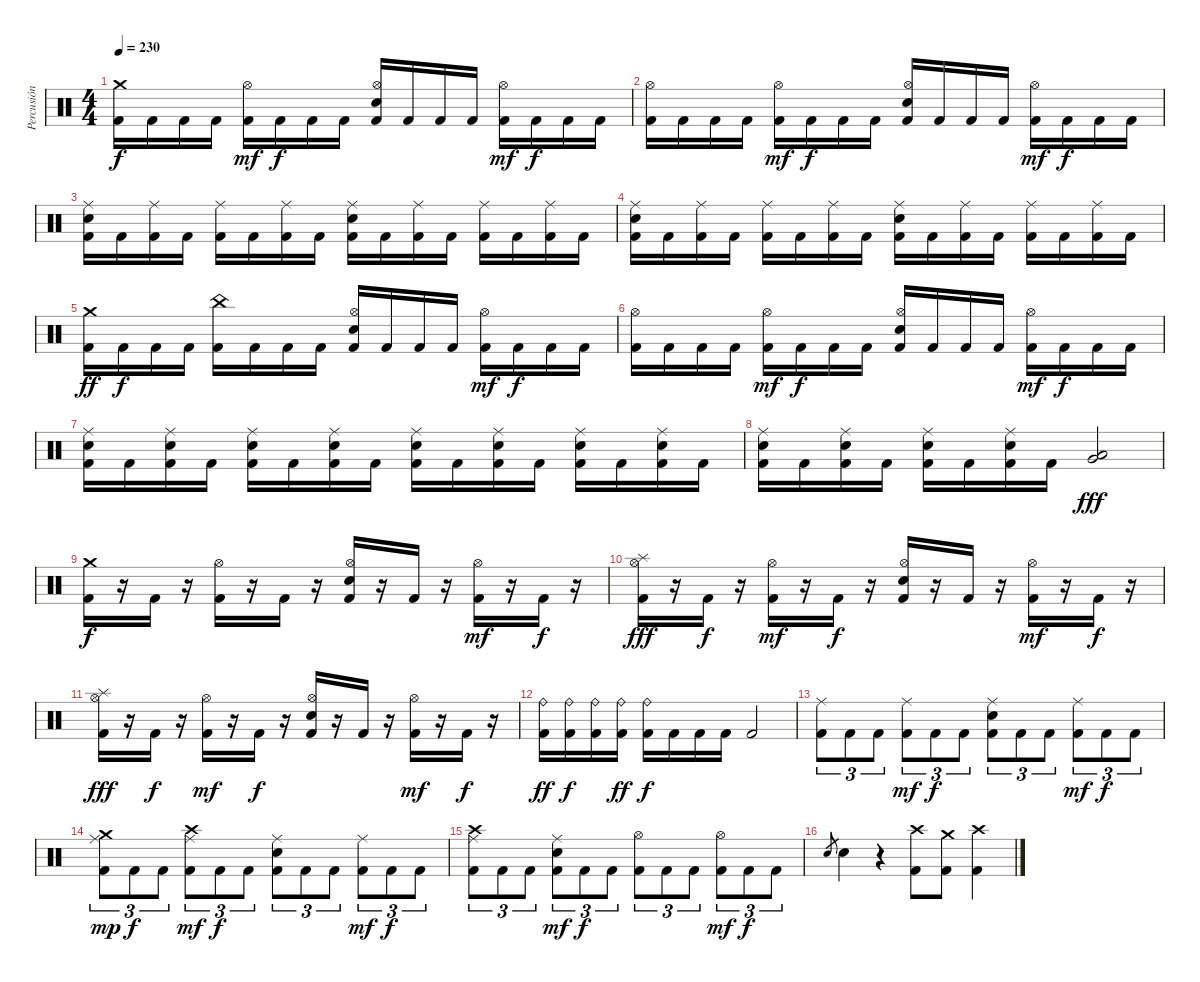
\track ("Percusión" "Percusión") {instrument percussion}
\staff {score}
\articulation defaults
\ts (4 4)
\tempo 230
\clef neutral
\ks c
("Crash medium (hit)" "Kick (hit) 2").16{dy f} "Kick (hit) 2".16 "Kick (hit) 2".16 "Kick (hit) 2".16 ("Hi-Hat (open)" "Kick (hit) 2").16{dy mf} "Kick (hit) 2".16{dy f} "Kick (hit) 2".16 "Kick (hit) 2".16 ("Hi-Hat (open)" "Kick (hit) 2" "Snare (hit) 2").16 "Kick (hit) 2".16 "Kick (hit) 2".16 "Kick (hit) 2".16 ("Hi-Hat (open)" "Kick (hit) 2").16{dy mf} "Kick (hit) 2".16{dy f} "Kick (hit) 2".16 "Kick (hit) 2".16 |
("Hi-Hat (open)" "Kick (hit) 2").16 "Kick (hit) 2".16 "Kick (hit) 2".16 "Kick (hit) 2".16 ("Hi-Hat (open)" "Kick (hit) 2").16{dy mf} "Kick (hit) 2".16{dy f} "Kick (hit) 2".16 "Kick (hit) 2".16 ("Hi-Hat (open)" "Kick (hit) 2" "Snare (hit) 2").16 "Kick (hit) 2".16 "Kick (hit) 2".16 "Kick (hit) 2".16 ("Hi-Hat (open)" "Kick (hit) 2").16{dy mf} "Kick (hit) 2".16{dy f} "Kick (hit) 2".16 "Kick (hit) 2".16 |
("Ride (middle)" "Kick (hit) 2" "Snare (hit) 2").16 "Kick (hit) 2".16 ("Ride (middle)" "Kick (hit) 2").16 "Kick (hit) 2".16 ("Ride (middle)" "Kick (hit) 2").16 "Kick (hit) 2".16 ("Ride (middle)" "Kick (hit) 2").16 "Kick (hit) 2".16 ("Ride (middle)" "Kick (hit) 2" "Snare (hit) 2").16 "Kick (hit) 2".16 ("Ride (middle)" "Kick (hit) 2").16 "Kick (hit) 2".16 ("Ride (middle)" "Kick (hit) 2").16 "Kick (hit) 2".16 ("Ride (middle)" "Kick (hit) 2").16 "Kick (hit) 2".16 |
("Ride (middle)" "Kick (hit) 2" "Snare (hit) 2").16 "Kick (hit) 2".16 ("Ride (middle)" "Kick (hit) 2").16 "Kick (hit) 2".16 ("Ride (middle)" "Kick (hit) 2").16 "Kick (hit) 2".16 ("Ride (middle)" "Kick (hit) 2").16 "Kick (hit) 2".16 ("Ride (middle)" "Kick (hit) 2" "Snare (hit) 2").16 "Kick (hit) 2".16 ("Ride (middle)" "Kick (hit) 2").16 "Kick (hit) 2".16 ("Ride (middle)" "Kick (hit) 2").16 "Kick (hit) 2".16 ("Ride (middle)" "Kick (hit) 2").16 "Kick (hit) 2".16 |
("Crash medium (hit)" "Kick (hit) 2").16{dy ff} "Kick (hit) 2".16{dy f} "Kick (hit) 2".16 "Kick (hit) 2".16 ("China (hit)" "Kick (hit) 2").16 "Kick (hit) 2".16 "Kick (hit) 2".16 "Kick (hit) 2".16 ("Hi-Hat (open)" "Kick (hit) 2" "Snare (hit) 2").16 "Kick (hit) 2".16 "Kick (hit) 2".16 "Kick (hit) 2".16 ("Hi-Hat (open)" "Kick (hit) 2").16{dy mf} "Kick (hit) 2".16{dy f} "Kick (hit) 2".16 "Kick (hit) 2".16 |
("Hi-Hat (open)" "Kick (hit) 2").16 "Kick (hit) 2".16 "Kick (hit) 2".16 "Kick (hit) 2".16 ("Hi-Hat (open)" "Kick (hit) 2").16{dy mf} "Kick (hit) 2".16{dy f} "Kick (hit) 2".16 "Kick (hit) 2".16 ("Hi-Hat (open)" "Kick (hit) 2" "Snare (hit) 2").16 "Kick (hit) 2".16 "Kick (hit) 2".16 "Kick (hit) 2".16 ("Hi-Hat (open)" "Kick (hit) 2").16{dy mf} "Kick (hit) 2".16{dy f} "Kick (hit) 2".16 "Kick (hit) 2".16 |
("Ride (middle)" "Kick (hit) 2" "Snare (hit) 2").16 "Kick (hit) 2".16 ("Ride (middle)" "Kick (hit) 2" "Snare (hit) 2").16 "Kick (hit) 2".16 ("Ride (middle)" "Kick (hit) 2" "Snare (hit) 2").16 "Kick (hit) 2".16 ("Ride (middle)" "Kick (hit) 2" "Snare (hit) 2").16 "Kick (hit) 2".16 ("Ride (middle)" "Kick (hit) 2" "Snare (hit) 2").16 "Kick (hit) 2".16 ("Ride (middle)" "Kick (hit) 2" "Snare (hit) 2").16 "Kick (hit) 2".16 ("Ride (middle)" "Kick (hit) 2" "Snare (hit) 2").16 "Kick (hit) 2".16 ("Ride (middle)" "Kick (hit) 2" "Snare (hit) 2").16 "Kick (hit) 2".16 |
("Ride (middle)" "Kick (hit) 2" "Snare (hit) 2").16 "Kick (hit) 2".16 ("Ride (middle)" "Kick (hit) 2" "Snare (hit) 2").16 "Kick (hit) 2".16 ("Ride (middle)" "Kick (hit) 2" "Snare (hit) 2").16 "Kick (hit) 2".16 ("Ride (middle)" "Kick (hit) 2" "Snare (hit) 2").16 "Kick (hit) 2".16 ("Very Low Tom (hit)" "Low Floor Tom (hit)").2{dy fff volume 16} |
("Crash medium (hit)" "Kick (hit) 2").16{dy f volume 14} r.16 "Kick (hit) 2".16 r.16 ("Hi-Hat (open)" "Kick (hit) 2").16 r.16 "Kick (hit) 2".16 r.16 ("Hi-Hat (open)" "Kick (hit) 2" "Snare (hit) 2").16 r.16 "Kick (hit) 2".16 r.16 ("Hi-Hat (open)" "Kick (hit) 2").16{dy mf} r.16 "Kick (hit) 2".16{dy f} r.16 |
("Splash (hit)" "Hi-Hat (open)" "Kick (hit) 2").16{dy fff} r.16 "Kick (hit) 2".16{dy f} r.16 ("Hi-Hat (open)" "Kick (hit) 2").16{dy mf} r.16 "Kick (hit) 2".16{dy f} r.16 ("Hi-Hat (open)" "Kick (hit) 2" "Snare (hit) 2").16 r.16 "Kick (hit) 2".16 r.16 ("Hi-Hat (open)" "Kick (hit) 2").16{dy mf} r.16 "Kick (hit) 2".16{dy f} r.16 |
("Splash (hit)" "Hi-Hat (open)" "Kick (hit) 2").16{dy fff} r.16 "Kick (hit) 2".16{dy f} r.16 ("Hi-Hat (open)" "Kick (hit) 2").16{dy mf} r.16 "Kick (hit) 2".16{dy f} r.16 ("Hi-Hat (open)" "Kick (hit) 2" "Snare (hit) 2").16 r.16 "Kick (hit) 2".16 r.16 ("Hi-Hat (open)" "Kick (hit) 2").16{dy mf} r.16 "Kick (hit) 2".16{dy f} r.16 |
("Ride (bell)" "Kick (hit) 2").16{dy ff} ("Ride (bell)" "Kick (hit) 2").16{dy f} ("Ride (bell)" "Kick (hit) 2").16 ("Ride (bell)" "Kick (hit) 2").16{dy ff} ("Ride (bell)" "Kick (hit) 2").16{dy f} "Kick (hit) 2".16 "Kick (hit) 2".16 "Kick (hit) 2".16 "Kick (hit) 2".2 |
("Ride (middle)" "Kick (hit) 2").8{tu (3 2)} "Kick (hit) 2".8{tu (3 2)} "Kick (hit) 2".8{tu (3 2)} ("Ride (middle)" "Kick (hit) 2").8{tu (3 2) dy mf} "Kick (hit) 2".8{tu (3 2) dy f} "Kick (hit) 2".8{tu (3 2)} ("Ride (middle)" "Kick (hit) 2" "Snare (hit) 2").8{tu (3 2)} "Kick (hit) 2".8{tu (3 2)} "Kick (hit) 2".8{tu (3 2)} ("Ride (middle)" "Kick (hit) 2").8{tu (3 2) dy mf} "Kick (hit) 2".8{tu (3 2) dy f} "Kick (hit) 2".8{tu (3 2)} |
("Crash medium (hit)" "Ride (middle)" "Kick (hit) 2").8{tu (3 2) dy mp} "Kick (hit) 2".8{tu (3 2) dy f} "Kick (hit) 2".8{tu (3 2)} ("Crash high (hit)" "Ride (middle)" "Kick (hit) 2").8{tu (3 2) dy mf} "Kick (hit) 2".8{tu (3 2) dy f} "Kick (hit) 2".8{tu (3 2)} ("Ride (middle)" "Kick (hit) 2" "Snare (hit) 2").8{tu (3 2)} "Kick (hit) 2".8{tu (3 2)} "Kick (hit) 2".8{tu (3 2)} ("Ride (middle)" "Kick (hit) 2").8{tu (3 2) dy mf} "Kick (hit) 2".8{tu (3 2) dy f} "Kick (hit) 2".8{tu (3 2)} |
("Crash high (hit)" "Ride (middle)" "Kick (hit) 2").8{tu (3 2)} "Kick (hit) 2".8{tu (3 2)} "Kick (hit) 2".8{tu (3 2)} ("Ride (middle)" "Kick (hit) 2" "Snare (hit) 2").8{tu (3 2) dy mf} "Kick (hit) 2".8{tu (3 2) dy f} "Kick (hit) 2".8{tu (3 2)} ("Hi-Hat (open)" "Kick (hit) 2").8{tu (3 2)} "Kick (hit) 2".8{tu (3 2)} "Kick (hit) 2".8{tu (3 2)} ("Hi-Hat (open)" "Kick (hit) 2").8{tu (3 2) dy mf} "Kick (hit) 2".8{tu (3 2) dy f} "Kick (hit) 2".8{tu (3 2)} |
"Snare (hit) 2".8{gr} "Snare (hit) 2".4 r.4 ("Crash high (hit)" "Kick (hit) 2").8 ("Crash medium (hit)" "Kick (hit) 2").8 ("Crash high (hit)" "Kick (hit) 2").4
